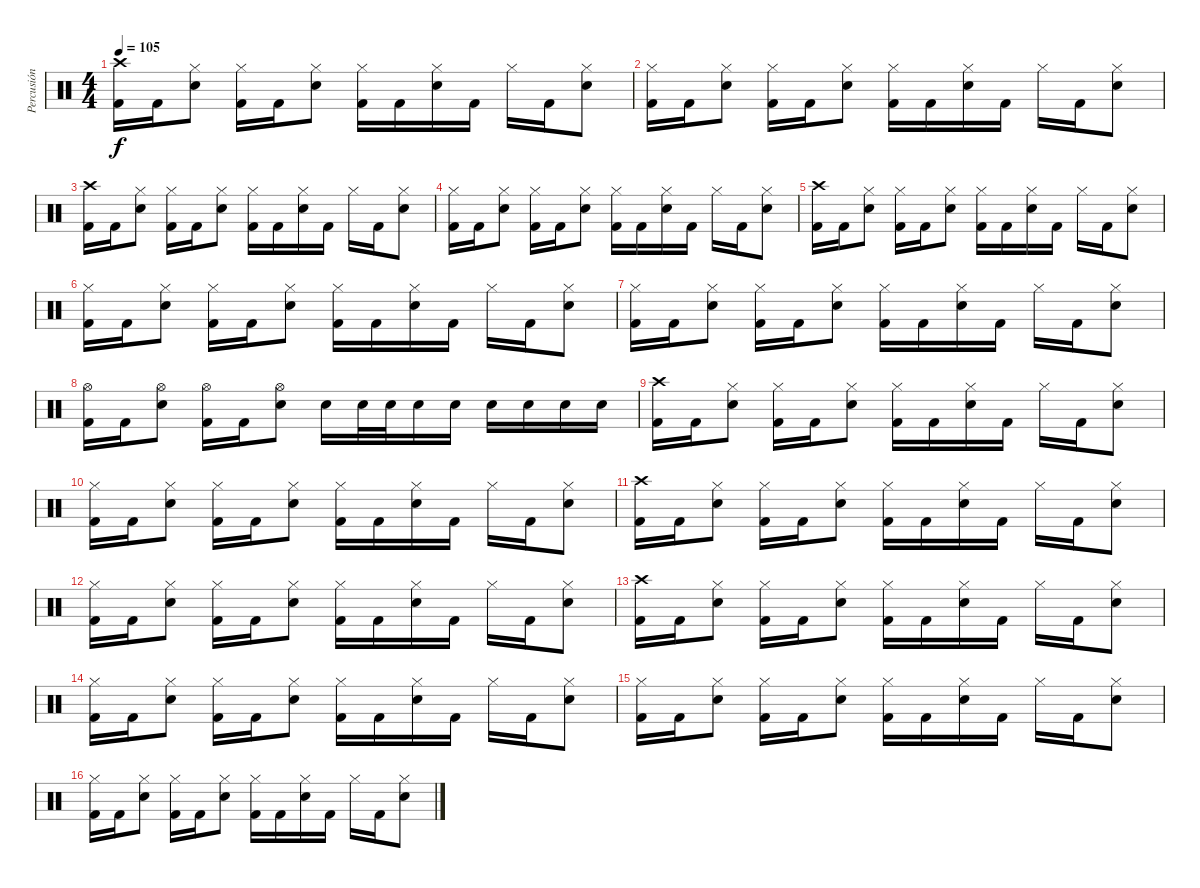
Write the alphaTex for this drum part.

\track ("Percusión" "Percusión") {instrument percussion}
\staff {score}
\articulation defaults
\ts (4 4)
\tempo 105
\clef neutral
\ks c
("Crash high (hit)" "Kick (hit) 2").16{dy f} "Kick (hit) 2".16 ("Hi-Hat (closed)" "Electric Snare (hit)").8 ("Hi-Hat (closed)" "Kick (hit) 2").16 "Kick (hit) 2".16 ("Hi-Hat (closed)" "Electric Snare (hit)").8 ("Hi-Hat (closed)" "Kick (hit) 2").16 "Kick (hit) 2".16 ("Hi-Hat (closed)" "Electric Snare (hit)").16 "Kick (hit) 2".16 "Hi-Hat (closed)".16 "Kick (hit) 2".16 ("Hi-Hat (closed)" "Electric Snare (hit)").8 |
("Hi-Hat (closed)" "Kick (hit) 2").16 "Kick (hit) 2".16 ("Hi-Hat (closed)" "Electric Snare (hit)").8 ("Hi-Hat (closed)" "Kick (hit) 2").16 "Kick (hit) 2".16 ("Hi-Hat (closed)" "Electric Snare (hit)").8 ("Hi-Hat (closed)" "Kick (hit) 2").16 "Kick (hit) 2".16 ("Hi-Hat (closed)" "Electric Snare (hit)").16 "Kick (hit) 2".16 "Hi-Hat (closed)".16 "Kick (hit) 2".16 ("Hi-Hat (closed)" "Electric Snare (hit)").8 |
("Crash high (hit)" "Kick (hit) 2").16 "Kick (hit) 2".16 ("Hi-Hat (closed)" "Electric Snare (hit)").8 ("Hi-Hat (closed)" "Kick (hit) 2").16 "Kick (hit) 2".16 ("Hi-Hat (closed)" "Electric Snare (hit)").8 ("Hi-Hat (closed)" "Kick (hit) 2").16 "Kick (hit) 2".16 ("Hi-Hat (closed)" "Electric Snare (hit)").16 "Kick (hit) 2".16 "Hi-Hat (closed)".16 "Kick (hit) 2".16 ("Hi-Hat (closed)" "Electric Snare (hit)").8 |
("Hi-Hat (closed)" "Kick (hit) 2").16 "Kick (hit) 2".16 ("Hi-Hat (closed)" "Electric Snare (hit)").8 ("Hi-Hat (closed)" "Kick (hit) 2").16 "Kick (hit) 2".16 ("Hi-Hat (closed)" "Electric Snare (hit)").8 ("Hi-Hat (closed)" "Kick (hit) 2").16 "Kick (hit) 2".16 ("Hi-Hat (closed)" "Electric Snare (hit)").16 "Kick (hit) 2".16 "Hi-Hat (closed)".16 "Kick (hit) 2".16 ("Hi-Hat (closed)" "Electric Snare (hit)").8 |
("Crash high (hit)" "Kick (hit) 2").16 "Kick (hit) 2".16 ("Hi-Hat (closed)" "Electric Snare (hit)").8 ("Hi-Hat (closed)" "Kick (hit) 2").16 "Kick (hit) 2".16 ("Hi-Hat (closed)" "Electric Snare (hit)").8 ("Hi-Hat (closed)" "Kick (hit) 2").16 "Kick (hit) 2".16 ("Hi-Hat (closed)" "Electric Snare (hit)").16 "Kick (hit) 2".16 "Hi-Hat (closed)".16 "Kick (hit) 2".16 ("Hi-Hat (closed)" "Electric Snare (hit)").8 |
("Hi-Hat (closed)" "Kick (hit) 2").16 "Kick (hit) 2".16 ("Hi-Hat (closed)" "Electric Snare (hit)").8 ("Hi-Hat (closed)" "Kick (hit) 2").16 "Kick (hit) 2".16 ("Hi-Hat (closed)" "Electric Snare (hit)").8 ("Hi-Hat (closed)" "Kick (hit) 2").16 "Kick (hit) 2".16 ("Hi-Hat (closed)" "Electric Snare (hit)").16 "Kick (hit) 2".16 "Hi-Hat (closed)".16 "Kick (hit) 2".16 ("Hi-Hat (closed)" "Electric Snare (hit)").8 |
("Hi-Hat (closed)" "Kick (hit) 2").16 "Kick (hit) 2".16 ("Hi-Hat (closed)" "Electric Snare (hit)").8 ("Hi-Hat (closed)" "Kick (hit) 2").16 "Kick (hit) 2".16 ("Hi-Hat (closed)" "Electric Snare (hit)").8 ("Hi-Hat (closed)" "Kick (hit) 2").16 "Kick (hit) 2".16 ("Hi-Hat (closed)" "Electric Snare (hit)").16 "Kick (hit) 2".16 "Hi-Hat (closed)".16 "Kick (hit) 2".16 ("Hi-Hat (closed)" "Electric Snare (hit)").8 |
("Hi-Hat (open)" "Kick (hit) 2").16 "Kick (hit) 2".16 ("Hi-Hat (open)" "Electric Snare (hit)").8 ("Hi-Hat (open)" "Kick (hit) 2").16 "Kick (hit) 2".16 ("Hi-Hat (open)" "Electric Snare (hit)").8 "Electric Snare (hit)".16 "Electric Snare (hit)".32 "Electric Snare (hit)".32 "Electric Snare (hit)".16 "Electric Snare (hit)".16 "Electric Snare (hit)".16 "Electric Snare (hit)".16 "Electric Snare (hit)".16 "Electric Snare (hit)".16 |
("Crash high (hit)" "Kick (hit) 2").16 "Kick (hit) 2".16 ("Hi-Hat (closed)" "Electric Snare (hit)").8 ("Hi-Hat (closed)" "Kick (hit) 2").16 "Kick (hit) 2".16 ("Hi-Hat (closed)" "Electric Snare (hit)").8 ("Hi-Hat (closed)" "Kick (hit) 2").16 "Kick (hit) 2".16 ("Hi-Hat (closed)" "Electric Snare (hit)").16 "Kick (hit) 2".16 "Hi-Hat (closed)".16 "Kick (hit) 2".16 ("Hi-Hat (closed)" "Electric Snare (hit)").8 |
("Hi-Hat (closed)" "Kick (hit) 2").16 "Kick (hit) 2".16 ("Hi-Hat (closed)" "Electric Snare (hit)").8 ("Hi-Hat (closed)" "Kick (hit) 2").16 "Kick (hit) 2".16 ("Hi-Hat (closed)" "Electric Snare (hit)").8 ("Hi-Hat (closed)" "Kick (hit) 2").16 "Kick (hit) 2".16 ("Hi-Hat (closed)" "Electric Snare (hit)").16 "Kick (hit) 2".16 "Hi-Hat (closed)".16 "Kick (hit) 2".16 ("Hi-Hat (closed)" "Electric Snare (hit)").8 |
("Crash high (hit)" "Kick (hit) 2").16 "Kick (hit) 2".16 ("Hi-Hat (closed)" "Electric Snare (hit)").8 ("Hi-Hat (closed)" "Kick (hit) 2").16 "Kick (hit) 2".16 ("Hi-Hat (closed)" "Electric Snare (hit)").8 ("Hi-Hat (closed)" "Kick (hit) 2").16 "Kick (hit) 2".16 ("Hi-Hat (closed)" "Electric Snare (hit)").16 "Kick (hit) 2".16 "Hi-Hat (closed)".16 "Kick (hit) 2".16 ("Hi-Hat (closed)" "Electric Snare (hit)").8 |
("Hi-Hat (closed)" "Kick (hit) 2").16 "Kick (hit) 2".16 ("Hi-Hat (closed)" "Electric Snare (hit)").8 ("Hi-Hat (closed)" "Kick (hit) 2").16 "Kick (hit) 2".16 ("Hi-Hat (closed)" "Electric Snare (hit)").8 ("Hi-Hat (closed)" "Kick (hit) 2").16 "Kick (hit) 2".16 ("Hi-Hat (closed)" "Electric Snare (hit)").16 "Kick (hit) 2".16 "Hi-Hat (closed)".16 "Kick (hit) 2".16 ("Hi-Hat (closed)" "Electric Snare (hit)").8 |
("Crash high (hit)" "Kick (hit) 2").16 "Kick (hit) 2".16 ("Hi-Hat (closed)" "Electric Snare (hit)").8 ("Hi-Hat (closed)" "Kick (hit) 2").16 "Kick (hit) 2".16 ("Hi-Hat (closed)" "Electric Snare (hit)").8 ("Hi-Hat (closed)" "Kick (hit) 2").16 "Kick (hit) 2".16 ("Hi-Hat (closed)" "Electric Snare (hit)").16 "Kick (hit) 2".16 "Hi-Hat (closed)".16 "Kick (hit) 2".16 ("Hi-Hat (closed)" "Electric Snare (hit)").8 |
("Hi-Hat (closed)" "Kick (hit) 2").16 "Kick (hit) 2".16 ("Hi-Hat (closed)" "Electric Snare (hit)").8 ("Hi-Hat (closed)" "Kick (hit) 2").16 "Kick (hit) 2".16 ("Hi-Hat (closed)" "Electric Snare (hit)").8 ("Hi-Hat (closed)" "Kick (hit) 2").16 "Kick (hit) 2".16 ("Hi-Hat (closed)" "Electric Snare (hit)").16 "Kick (hit) 2".16 "Hi-Hat (closed)".16 "Kick (hit) 2".16 ("Hi-Hat (closed)" "Electric Snare (hit)").8 |
("Hi-Hat (closed)" "Kick (hit) 2").16 "Kick (hit) 2".16 ("Hi-Hat (closed)" "Electric Snare (hit)").8 ("Hi-Hat (closed)" "Kick (hit) 2").16 "Kick (hit) 2".16 ("Hi-Hat (closed)" "Electric Snare (hit)").8 ("Hi-Hat (closed)" "Kick (hit) 2").16 "Kick (hit) 2".16 ("Hi-Hat (closed)" "Electric Snare (hit)").16 "Kick (hit) 2".16 "Hi-Hat (closed)".16 "Kick (hit) 2".16 ("Hi-Hat (closed)" "Electric Snare (hit)").8 |
("Hi-Hat (closed)" "Kick (hit) 2").16 "Kick (hit) 2".16 ("Hi-Hat (closed)" "Electric Snare (hit)").8 ("Hi-Hat (closed)" "Kick (hit) 2").16 "Kick (hit) 2".16 ("Hi-Hat (closed)" "Electric Snare (hit)").8 ("Hi-Hat (closed)" "Kick (hit) 2").16 "Kick (hit) 2".16 ("Hi-Hat (closed)" "Electric Snare (hit)").16 "Kick (hit) 2".16 "Hi-Hat (closed)".16 "Kick (hit) 2".16 ("Hi-Hat (closed)" "Electric Snare (hit)").8
